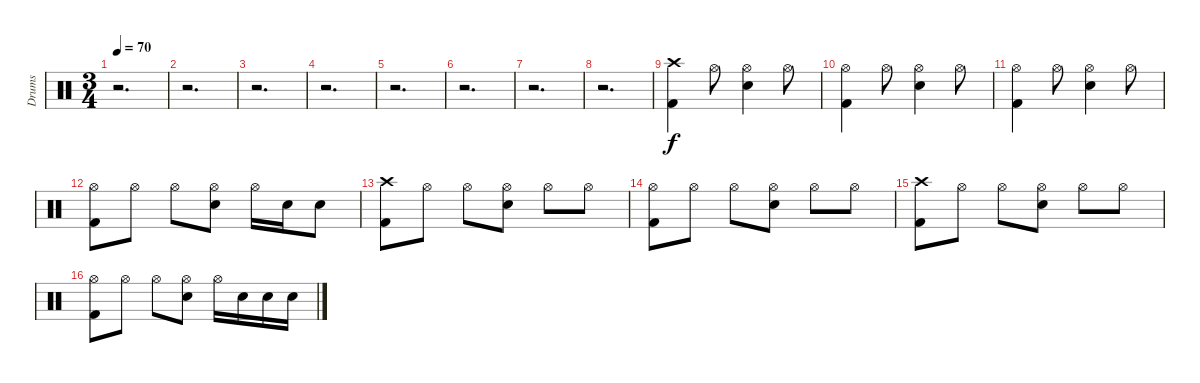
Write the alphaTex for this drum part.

\track ("Drums" "Drums") {instrument percussion}
\staff {score}
\articulation defaults
\ts (3 4)
\tempo 70
\clef neutral
\ks c
r.2{d dy f} |
r.2{d} |
r.2{d} |
r.2{d} |
r.2{d} |
r.2{d} |
r.2{d} |
r.2{d} |
("Crash high (hit)" "Kick (hit) 2").4 "Hi-Hat (open)".8 ("Hi-Hat (open)" "Electric Snare (hit)").4 "Hi-Hat (open)".8 |
("Hi-Hat (open)" "Kick (hit) 2").4 "Hi-Hat (open)".8 ("Hi-Hat (open)" "Electric Snare (hit)").4 "Hi-Hat (open)".8 |
("Hi-Hat (open)" "Kick (hit) 2").4 "Hi-Hat (open)".8 ("Hi-Hat (open)" "Electric Snare (hit)").4 "Hi-Hat (open)".8 |
("Hi-Hat (open)" "Kick (hit) 2").8 "Hi-Hat (open)".8 "Hi-Hat (open)".8 ("Hi-Hat (open)" "Electric Snare (hit)").8 "Hi-Hat (open)".16 "Electric Snare (hit)".16 "Electric Snare (hit)".8 |
("Crash high (hit)" "Kick (hit) 2").8 "Hi-Hat (open)".8 "Hi-Hat (open)".8 ("Hi-Hat (open)" "Electric Snare (hit)").8 "Hi-Hat (open)".8 "Hi-Hat (open)".8 |
("Hi-Hat (open)" "Kick (hit) 2").8 "Hi-Hat (open)".8 "Hi-Hat (open)".8 ("Hi-Hat (open)" "Electric Snare (hit)").8 "Hi-Hat (open)".8 "Hi-Hat (open)".8 |
("Crash high (hit)" "Kick (hit) 2").8 "Hi-Hat (open)".8 "Hi-Hat (open)".8 ("Hi-Hat (open)" "Electric Snare (hit)").8 "Hi-Hat (open)".8 "Hi-Hat (open)".8 |
("Hi-Hat (open)" "Kick (hit) 2").8 "Hi-Hat (open)".8 "Hi-Hat (open)".8 ("Hi-Hat (open)" "Electric Snare (hit)").8 "Hi-Hat (open)".16 "Electric Snare (hit)".16 "Electric Snare (hit)".16 "Electric Snare (hit)".16
